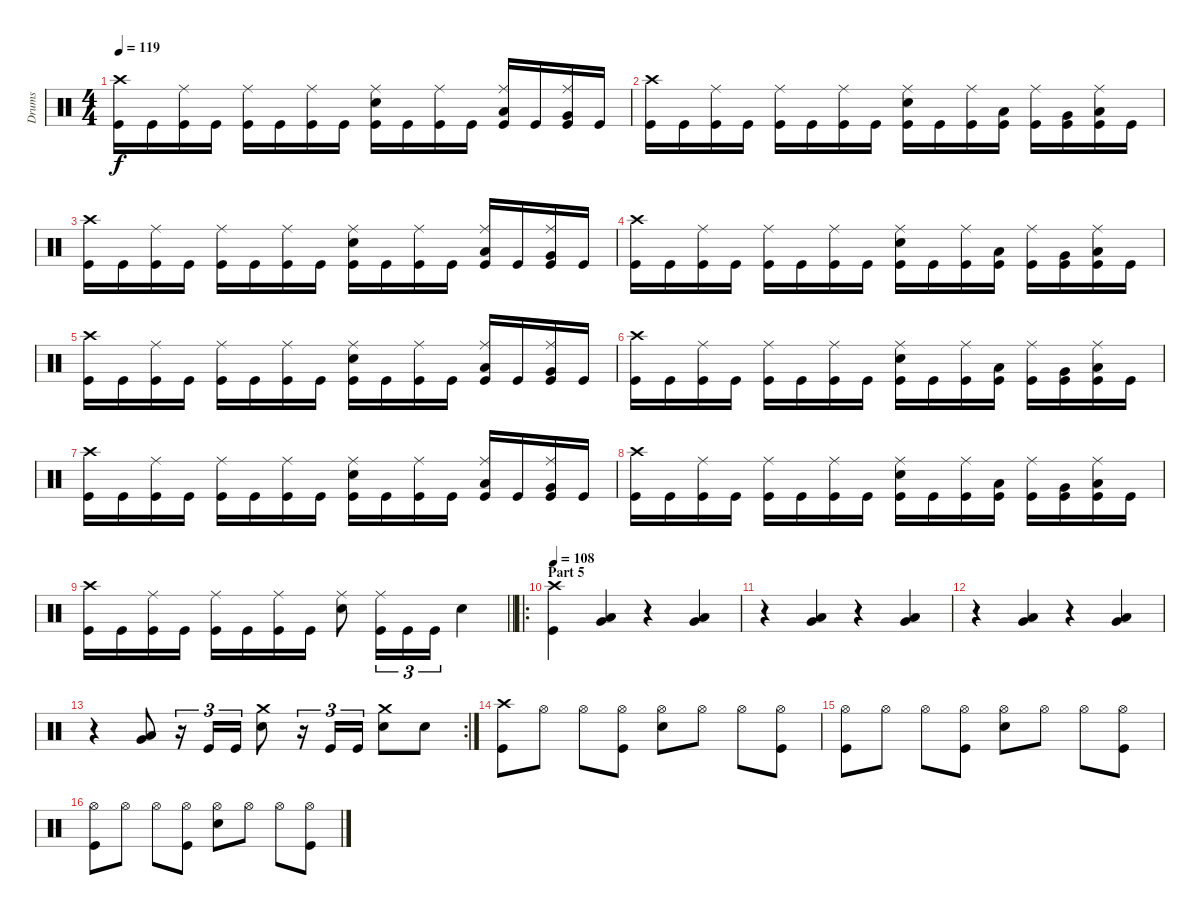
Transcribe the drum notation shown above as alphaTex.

\track ("Drums" "Drums") {instrument percussion}
\staff {score}
\articulation defaults
\ts (4 4)
\tempo 119
\clef neutral
\ks c
("Crash high (hit)" "Kick (hit)").16{dy f} "Kick (hit)".16 ("Ride (middle)" "Kick (hit)").16 "Kick (hit)".16 ("Ride (middle)" "Kick (hit)").16 "Kick (hit)".16 ("Ride (middle)" "Kick (hit)").16 "Kick (hit)".16 ("Ride (middle)" "Snare (hit) 2" "Kick (hit)").16 "Kick (hit)".16 ("Ride (middle)" "Kick (hit)").16 "Kick (hit)".16 ("Ride (middle)" "Low Tom (hit)" "Kick (hit)").16 "Kick (hit)".16 ("Ride (middle)" "Very Low Tom (hit)" "Kick (hit)").16 "Kick (hit)".16 |
("Crash high (hit)" "Kick (hit)").16 "Kick (hit)".16 ("Ride (middle)" "Kick (hit)").16 "Kick (hit)".16 ("Ride (middle)" "Kick (hit)").16 "Kick (hit)".16 ("Ride (middle)" "Kick (hit)").16 "Kick (hit)".16 ("Ride (middle)" "Snare (hit) 2" "Kick (hit)").16 "Kick (hit)".16 ("Ride (middle)" "Kick (hit)").16 ("Low Tom (hit)" "Kick (hit)").16 ("Ride (middle)" "Kick (hit)").16 ("Very Low Tom (hit)" "Kick (hit)").16 ("Ride (middle)" "Low Floor Tom (hit)" "Kick (hit)").16 "Kick (hit)".16 |
("Crash high (hit)" "Kick (hit)").16 "Kick (hit)".16 ("Ride (middle)" "Kick (hit)").16 "Kick (hit)".16 ("Ride (middle)" "Kick (hit)").16 "Kick (hit)".16 ("Ride (middle)" "Kick (hit)").16 "Kick (hit)".16 ("Ride (middle)" "Snare (hit) 2" "Kick (hit)").16 "Kick (hit)".16 ("Ride (middle)" "Kick (hit)").16 "Kick (hit)".16 ("Ride (middle)" "Low Tom (hit)" "Kick (hit)").16 "Kick (hit)".16 ("Ride (middle)" "Very Low Tom (hit)" "Kick (hit)").16 "Kick (hit)".16 |
("Crash high (hit)" "Kick (hit)").16 "Kick (hit)".16 ("Ride (middle)" "Kick (hit)").16 "Kick (hit)".16 ("Ride (middle)" "Kick (hit)").16 "Kick (hit)".16 ("Ride (middle)" "Kick (hit)").16 "Kick (hit)".16 ("Ride (middle)" "Snare (hit) 2" "Kick (hit)").16 "Kick (hit)".16 ("Ride (middle)" "Kick (hit)").16 ("Low Tom (hit)" "Kick (hit)").16 ("Ride (middle)" "Kick (hit)").16 ("Very Low Tom (hit)" "Kick (hit)").16 ("Ride (middle)" "Low Floor Tom (hit)" "Kick (hit)").16 "Kick (hit)".16 |
("Crash high (hit)" "Kick (hit)").16 "Kick (hit)".16 ("Ride (middle)" "Kick (hit)").16 "Kick (hit)".16 ("Ride (middle)" "Kick (hit)").16 "Kick (hit)".16 ("Ride (middle)" "Kick (hit)").16 "Kick (hit)".16 ("Ride (middle)" "Snare (hit) 2" "Kick (hit)").16 "Kick (hit)".16 ("Ride (middle)" "Kick (hit)").16 "Kick (hit)".16 ("Ride (middle)" "Low Tom (hit)" "Kick (hit)").16 "Kick (hit)".16 ("Ride (middle)" "Very Low Tom (hit)" "Kick (hit)").16 "Kick (hit)".16 |
("Crash high (hit)" "Kick (hit)").16 "Kick (hit)".16 ("Ride (middle)" "Kick (hit)").16 "Kick (hit)".16 ("Ride (middle)" "Kick (hit)").16 "Kick (hit)".16 ("Ride (middle)" "Kick (hit)").16 "Kick (hit)".16 ("Ride (middle)" "Snare (hit) 2" "Kick (hit)").16 "Kick (hit)".16 ("Ride (middle)" "Kick (hit)").16 ("Low Tom (hit)" "Kick (hit)").16 ("Ride (middle)" "Kick (hit)").16 ("Very Low Tom (hit)" "Kick (hit)").16 ("Ride (middle)" "Low Floor Tom (hit)" "Kick (hit)").16 "Kick (hit)".16 |
("Crash high (hit)" "Kick (hit)").16 "Kick (hit)".16 ("Ride (middle)" "Kick (hit)").16 "Kick (hit)".16 ("Ride (middle)" "Kick (hit)").16 "Kick (hit)".16 ("Ride (middle)" "Kick (hit)").16 "Kick (hit)".16 ("Ride (middle)" "Snare (hit) 2" "Kick (hit)").16 "Kick (hit)".16 ("Ride (middle)" "Kick (hit)").16 "Kick (hit)".16 ("Ride (middle)" "Low Tom (hit)" "Kick (hit)").16 "Kick (hit)".16 ("Ride (middle)" "Very Low Tom (hit)" "Kick (hit)").16 "Kick (hit)".16 |
("Crash high (hit)" "Kick (hit)").16 "Kick (hit)".16 ("Ride (middle)" "Kick (hit)").16 "Kick (hit)".16 ("Ride (middle)" "Kick (hit)").16 "Kick (hit)".16 ("Ride (middle)" "Kick (hit)").16 "Kick (hit)".16 ("Ride (middle)" "Snare (hit) 2" "Kick (hit)").16 "Kick (hit)".16 ("Ride (middle)" "Kick (hit)").16 ("Low Tom (hit)" "Kick (hit)").16 ("Ride (middle)" "Kick (hit)").16 ("Very Low Tom (hit)" "Kick (hit)").16 ("Ride (middle)" "Low Floor Tom (hit)" "Kick (hit)").16 "Kick (hit)".16 |
\barLineRight lightlight
("Crash high (hit)" "Kick (hit)").16 "Kick (hit)".16 ("Ride (middle)" "Kick (hit)").16 "Kick (hit)".16 ("Ride (middle)" "Kick (hit)").16 "Kick (hit)".16 ("Ride (middle)" "Kick (hit)").16 "Kick (hit)".16 ("Ride (middle)" "Snare (hit) 2").8 ("Ride (middle)" "Kick (hit)").16{tu (3 2)} "Kick (hit)".16{tu (3 2)} "Kick (hit)".16{tu (3 2)} "Snare (hit) 2".4 |
\ro
\section ("" "Part 5")
\tempo 108
("Crash high (hit)" "Kick (hit)").4 ("Very Low Tom (hit)" "Low Floor Tom (hit)").4 r.4 ("Very Low Tom (hit)" "Low Floor Tom (hit)").4 |
r.4 ("Very Low Tom (hit)" "Low Floor Tom (hit)").4 r.4 ("Very Low Tom (hit)" "Low Floor Tom (hit)").4 |
r.4 ("Very Low Tom (hit)" "Low Floor Tom (hit)").4 r.4 ("Very Low Tom (hit)" "Low Floor Tom (hit)").4 |
\rc 2
r.4 ("Very Low Tom (hit)" "Low Floor Tom (hit)").8 r.16{tu (3 2)} "Kick (hit)".16{tu (3 2)} "Kick (hit)".16{tu (3 2)} ("Crash medium (hit)" "Snare (hit) 2").8 r.16{tu (3 2)} "Kick (hit)".16{tu (3 2)} "Kick (hit)".16{tu (3 2)} ("Crash medium (hit)" "Snare (hit) 2").8 "Snare (hit) 2".8 |
("Crash high (hit)" "Kick (hit)").8 "Hi-Hat (open)".8 "Hi-Hat (open)".8 ("Hi-Hat (open)" "Kick (hit)").8 ("Hi-Hat (open)" "Snare (hit) 2").8 "Hi-Hat (open)".8 "Hi-Hat (open)".8 ("Hi-Hat (open)" "Kick (hit)").8 |
("Hi-Hat (open)" "Kick (hit)").8 "Hi-Hat (open)".8 "Hi-Hat (open)".8 ("Hi-Hat (open)" "Kick (hit)").8 ("Hi-Hat (open)" "Snare (hit) 2").8 "Hi-Hat (open)".8 "Hi-Hat (open)".8 ("Hi-Hat (open)" "Kick (hit)").8 |
("Hi-Hat (open)" "Kick (hit)").8 "Hi-Hat (open)".8 "Hi-Hat (open)".8 ("Hi-Hat (open)" "Kick (hit)").8 ("Hi-Hat (open)" "Snare (hit) 2").8 "Hi-Hat (open)".8 "Hi-Hat (open)".8 ("Hi-Hat (open)" "Kick (hit)").8
